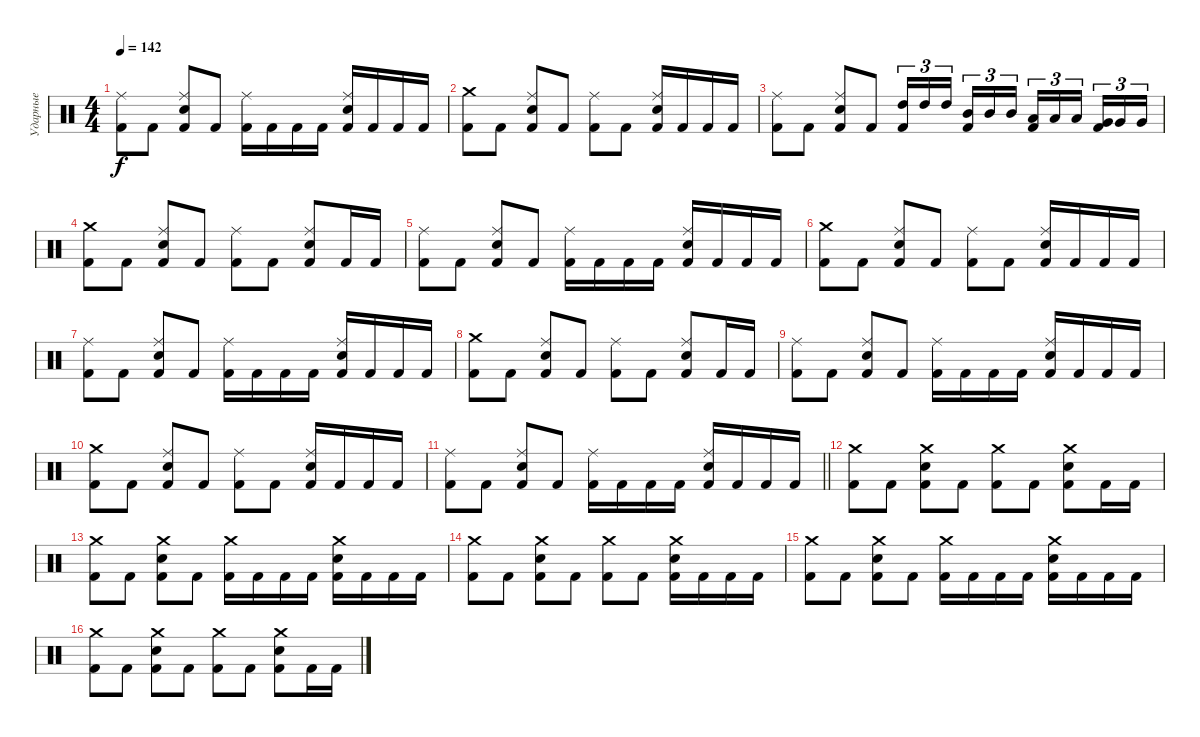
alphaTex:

\track ("Ударные" "Ударные") {instrument percussion}
\staff {score}
\articulation defaults
\ts (4 4)
\tempo 142
\clef neutral
\ks c
("Kick (hit) 2" "Ride (middle)").8{dy f} "Kick (hit) 2".8 ("Kick (hit) 2" "Snare (hit) 2" "Ride (middle)").8 "Kick (hit) 2".8 ("Kick (hit) 2" "Ride (middle)").16 "Kick (hit) 2".16 "Kick (hit) 2".16 "Kick (hit) 2".16 ("Kick (hit) 2" "Snare (hit) 2" "Ride (middle)").16 "Kick (hit) 2".16 "Kick (hit) 2".16 "Kick (hit) 2".16 |
("Kick (hit) 2" "Crash medium (hit)").8 "Kick (hit) 2".8 ("Kick (hit) 2" "Snare (hit) 2" "Ride (middle)").8 "Kick (hit) 2".8 ("Kick (hit) 2" "Ride (middle)").8 "Kick (hit) 2".8 ("Kick (hit) 2" "Snare (hit) 2" "Ride (middle)").16 "Kick (hit) 2".16 "Kick (hit) 2".16 "Kick (hit) 2".16 |
("Kick (hit) 2" "Ride (middle)").8 "Kick (hit) 2".8 ("Kick (hit) 2" "Snare (hit) 2" "Ride (middle)").8 "Kick (hit) 2".8 ("Kick (hit) 2" "High Tom (hit)").16{tu (3 2)} "High Tom (hit)".16{tu (3 2)} "High Tom (hit)".16{tu (3 2) beam splitsecondary} ("Kick (hit) 2" "Mid Tom (hit)").16{tu (3 2)} "Mid Tom (hit)".16{tu (3 2)} "Mid Tom (hit)".16{tu (3 2)} ("Kick (hit) 2" "Low Tom (hit)").16{tu (3 2)} "Low Tom (hit)".16{tu (3 2)} "Low Tom (hit)".16{tu (3 2) beam splitsecondary} ("Kick (hit) 2" "Very Low Tom (hit)").16{tu (3 2)} "Very Low Tom (hit)".16{tu (3 2)} "Very Low Tom (hit)".16{tu (3 2)} |
("Kick (hit) 2" "Crash medium (hit)").8 "Kick (hit) 2".8 ("Kick (hit) 2" "Snare (hit) 2" "Ride (middle)").8 "Kick (hit) 2".8 ("Kick (hit) 2" "Ride (middle)").8 "Kick (hit) 2".8 ("Kick (hit) 2" "Snare (hit) 2" "Ride (middle)").8 "Kick (hit) 2".16 "Kick (hit) 2".16 |
("Kick (hit) 2" "Ride (middle)").8 "Kick (hit) 2".8 ("Kick (hit) 2" "Snare (hit) 2" "Ride (middle)").8 "Kick (hit) 2".8 ("Kick (hit) 2" "Ride (middle)").16 "Kick (hit) 2".16 "Kick (hit) 2".16 "Kick (hit) 2".16 ("Kick (hit) 2" "Snare (hit) 2" "Ride (middle)").16 "Kick (hit) 2".16 "Kick (hit) 2".16 "Kick (hit) 2".16 |
("Kick (hit) 2" "Crash medium (hit)").8 "Kick (hit) 2".8 ("Kick (hit) 2" "Snare (hit) 2" "Ride (middle)").8 "Kick (hit) 2".8 ("Kick (hit) 2" "Ride (middle)").8 "Kick (hit) 2".8 ("Kick (hit) 2" "Snare (hit) 2" "Ride (middle)").16 "Kick (hit) 2".16 "Kick (hit) 2".16 "Kick (hit) 2".16 |
("Kick (hit) 2" "Ride (middle)").8 "Kick (hit) 2".8 ("Kick (hit) 2" "Snare (hit) 2" "Ride (middle)").8 "Kick (hit) 2".8 ("Kick (hit) 2" "Ride (middle)").16 "Kick (hit) 2".16 "Kick (hit) 2".16 "Kick (hit) 2".16 ("Kick (hit) 2" "Snare (hit) 2" "Ride (middle)").16 "Kick (hit) 2".16 "Kick (hit) 2".16 "Kick (hit) 2".16 |
("Kick (hit) 2" "Crash medium (hit)").8 "Kick (hit) 2".8 ("Kick (hit) 2" "Snare (hit) 2" "Ride (middle)").8 "Kick (hit) 2".8 ("Kick (hit) 2" "Ride (middle)").8 "Kick (hit) 2".8 ("Kick (hit) 2" "Snare (hit) 2" "Ride (middle)").8 "Kick (hit) 2".16 "Kick (hit) 2".16 |
("Kick (hit) 2" "Ride (middle)").8 "Kick (hit) 2".8 ("Kick (hit) 2" "Snare (hit) 2" "Ride (middle)").8 "Kick (hit) 2".8 ("Kick (hit) 2" "Ride (middle)").16 "Kick (hit) 2".16 "Kick (hit) 2".16 "Kick (hit) 2".16 ("Kick (hit) 2" "Snare (hit) 2" "Ride (middle)").16 "Kick (hit) 2".16 "Kick (hit) 2".16 "Kick (hit) 2".16 |
("Kick (hit) 2" "Crash medium (hit)").8 "Kick (hit) 2".8 ("Kick (hit) 2" "Snare (hit) 2" "Ride (middle)").8 "Kick (hit) 2".8 ("Kick (hit) 2" "Ride (middle)").8 "Kick (hit) 2".8 ("Kick (hit) 2" "Snare (hit) 2" "Ride (middle)").16 "Kick (hit) 2".16 "Kick (hit) 2".16 "Kick (hit) 2".16 |
\barLineRight lightlight
("Kick (hit) 2" "Ride (middle)").8 "Kick (hit) 2".8 ("Kick (hit) 2" "Snare (hit) 2" "Ride (middle)").8 "Kick (hit) 2".8 ("Kick (hit) 2" "Ride (middle)").16 "Kick (hit) 2".16 "Kick (hit) 2".16 "Kick (hit) 2".16 ("Kick (hit) 2" "Snare (hit) 2" "Ride (middle)").16 "Kick (hit) 2".16 "Kick (hit) 2".16 "Kick (hit) 2".16 |
("Kick (hit) 2" "Crash medium (hit)").8 "Kick (hit) 2".8 ("Kick (hit) 2" "Snare (hit) 2" "Crash medium (hit)").8 "Kick (hit) 2".8 ("Kick (hit) 2" "Crash medium (hit)").8 "Kick (hit) 2".8 ("Kick (hit) 2" "Snare (hit) 2" "Crash medium (hit)").8 "Kick (hit) 2".16 "Kick (hit) 2".16 |
("Kick (hit) 2" "Crash medium (hit)").8 "Kick (hit) 2".8 ("Kick (hit) 2" "Snare (hit) 2" "Crash medium (hit)").8 "Kick (hit) 2".8 ("Kick (hit) 2" "Crash medium (hit)").16 "Kick (hit) 2".16 "Kick (hit) 2".16 "Kick (hit) 2".16 ("Kick (hit) 2" "Snare (hit) 2" "Crash medium (hit)").16 "Kick (hit) 2".16 "Kick (hit) 2".16 "Kick (hit) 2".16 |
("Kick (hit) 2" "Crash medium (hit)").8 "Kick (hit) 2".8 ("Kick (hit) 2" "Snare (hit) 2" "Crash medium (hit)").8 "Kick (hit) 2".8 ("Kick (hit) 2" "Crash medium (hit)").8 "Kick (hit) 2".8 ("Kick (hit) 2" "Snare (hit) 2" "Crash medium (hit)").16 "Kick (hit) 2".16 "Kick (hit) 2".16 "Kick (hit) 2".16 |
("Kick (hit) 2" "Crash medium (hit)").8 "Kick (hit) 2".8 ("Kick (hit) 2" "Snare (hit) 2" "Crash medium (hit)").8 "Kick (hit) 2".8 ("Kick (hit) 2" "Crash medium (hit)").16 "Kick (hit) 2".16 "Kick (hit) 2".16 "Kick (hit) 2".16 ("Kick (hit) 2" "Snare (hit) 2" "Crash medium (hit)").16 "Kick (hit) 2".16 "Kick (hit) 2".16 "Kick (hit) 2".16 |
("Kick (hit) 2" "Crash medium (hit)").8 "Kick (hit) 2".8 ("Kick (hit) 2" "Snare (hit) 2" "Crash medium (hit)").8 "Kick (hit) 2".8 ("Kick (hit) 2" "Crash medium (hit)").8 "Kick (hit) 2".8 ("Kick (hit) 2" "Snare (hit) 2" "Crash medium (hit)").8 "Kick (hit) 2".16 "Kick (hit) 2".16
